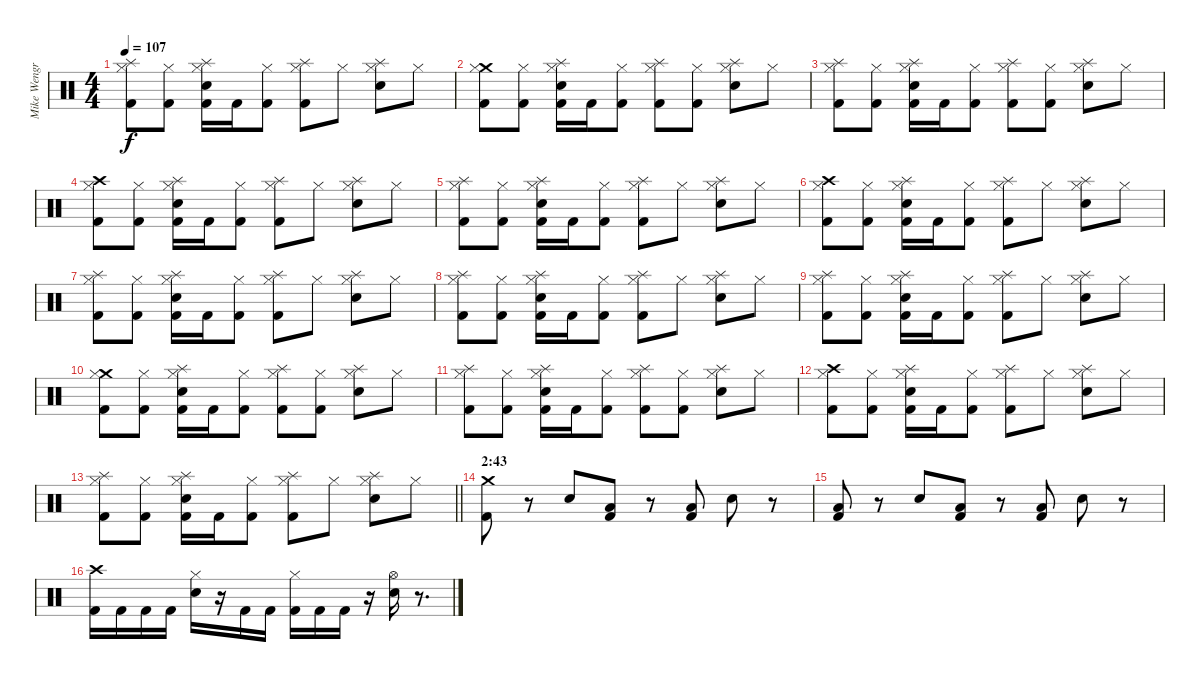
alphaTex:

\track ("Mike Wengren" "Mike Wengr") {instrument percussion}
\staff {score}
\articulation defaults
\ts (4 4)
\tempo 107
\clef neutral
\ks c
("Splash (hit)" "Hi-Hat (closed)" "Kick (hit) 2").8{dy f} ("Hi-Hat (closed)" "Kick (hit) 2").8 ("Splash (hit)" "Hi-Hat (closed)" "Electric Snare (hit)" "Kick (hit) 2").16 "Kick (hit) 2".16 ("Hi-Hat (closed)" "Kick (hit) 2").8 ("Splash (hit)" "Hi-Hat (closed)" "Kick (hit) 2").8 "Hi-Hat (closed)".8 ("Splash (hit)" "Hi-Hat (closed)" "Electric Snare (hit)").8 "Hi-Hat (closed)".8 |
("Crash medium (hit)" "Hi-Hat (closed)" "Kick (hit) 2").8 ("Hi-Hat (closed)" "Kick (hit) 2").8 ("Splash (hit)" "Hi-Hat (closed)" "Electric Snare (hit)" "Kick (hit) 2").16 "Kick (hit) 2".16 ("Hi-Hat (closed)" "Kick (hit) 2").8 ("Splash (hit)" "Hi-Hat (closed)" "Kick (hit) 2").8 ("Hi-Hat (closed)" "Kick (hit) 2").8 ("Splash (hit)" "Hi-Hat (closed)" "Electric Snare (hit)").8 "Hi-Hat (closed)".8 |
("Splash (hit)" "Hi-Hat (closed)" "Kick (hit) 2").8 ("Hi-Hat (closed)" "Kick (hit) 2").8 ("Splash (hit)" "Hi-Hat (closed)" "Electric Snare (hit)" "Kick (hit) 2").16 "Kick (hit) 2".16 ("Hi-Hat (closed)" "Kick (hit) 2").8 ("Splash (hit)" "Hi-Hat (closed)" "Kick (hit) 2").8 ("Hi-Hat (closed)" "Kick (hit) 2").8 ("Splash (hit)" "Hi-Hat (closed)" "Electric Snare (hit)").8 "Hi-Hat (closed)".8 |
("Crash high (hit)" "Hi-Hat (closed)" "Kick (hit) 2").8 ("Hi-Hat (closed)" "Kick (hit) 2").8 ("Splash (hit)" "Hi-Hat (closed)" "Electric Snare (hit)" "Kick (hit) 2").16 "Kick (hit) 2".16 ("Hi-Hat (closed)" "Kick (hit) 2").8 ("Splash (hit)" "Hi-Hat (closed)" "Kick (hit) 2").8 "Hi-Hat (closed)".8 ("Splash (hit)" "Hi-Hat (closed)" "Electric Snare (hit)").8 "Hi-Hat (closed)".8 |
("Splash (hit)" "Hi-Hat (closed)" "Kick (hit) 2").8 ("Hi-Hat (closed)" "Kick (hit) 2").8 ("Splash (hit)" "Hi-Hat (closed)" "Electric Snare (hit)" "Kick (hit) 2").16 "Kick (hit) 2".16 ("Hi-Hat (closed)" "Kick (hit) 2").8 ("Splash (hit)" "Hi-Hat (closed)" "Kick (hit) 2").8 "Hi-Hat (closed)".8 ("Splash (hit)" "Hi-Hat (closed)" "Electric Snare (hit)").8 "Hi-Hat (closed)".8 |
("Crash high (hit)" "Hi-Hat (closed)" "Kick (hit) 2").8 ("Hi-Hat (closed)" "Kick (hit) 2").8 ("Splash (hit)" "Hi-Hat (closed)" "Electric Snare (hit)" "Kick (hit) 2").16 "Kick (hit) 2".16 ("Hi-Hat (closed)" "Kick (hit) 2").8 ("Splash (hit)" "Hi-Hat (closed)" "Kick (hit) 2").8 "Hi-Hat (closed)".8 ("Splash (hit)" "Hi-Hat (closed)" "Electric Snare (hit)").8 "Hi-Hat (closed)".8 |
("Splash (hit)" "Hi-Hat (closed)" "Kick (hit) 2").8 ("Hi-Hat (closed)" "Kick (hit) 2").8 ("Splash (hit)" "Hi-Hat (closed)" "Electric Snare (hit)" "Kick (hit) 2").16 "Kick (hit) 2".16 ("Hi-Hat (closed)" "Kick (hit) 2").8 ("Splash (hit)" "Hi-Hat (closed)" "Kick (hit) 2").8 "Hi-Hat (closed)".8 ("Splash (hit)" "Hi-Hat (closed)" "Electric Snare (hit)").8 "Hi-Hat (closed)".8 |
("Splash (hit)" "Hi-Hat (closed)" "Kick (hit) 2").8 ("Hi-Hat (closed)" "Kick (hit) 2").8 ("Splash (hit)" "Hi-Hat (closed)" "Electric Snare (hit)" "Kick (hit) 2").16 "Kick (hit) 2".16 ("Hi-Hat (closed)" "Kick (hit) 2").8 ("Splash (hit)" "Hi-Hat (closed)" "Kick (hit) 2").8 "Hi-Hat (closed)".8 ("Splash (hit)" "Hi-Hat (closed)" "Electric Snare (hit)").8 "Hi-Hat (closed)".8 |
("Splash (hit)" "Hi-Hat (closed)" "Kick (hit) 2").8 ("Hi-Hat (closed)" "Kick (hit) 2").8 ("Splash (hit)" "Hi-Hat (closed)" "Electric Snare (hit)" "Kick (hit) 2").16 "Kick (hit) 2".16 ("Hi-Hat (closed)" "Kick (hit) 2").8 ("Splash (hit)" "Hi-Hat (closed)" "Kick (hit) 2").8 "Hi-Hat (closed)".8 ("Splash (hit)" "Hi-Hat (closed)" "Electric Snare (hit)").8 "Hi-Hat (closed)".8 |
("Crash medium (hit)" "Hi-Hat (closed)" "Kick (hit) 2").8 ("Hi-Hat (closed)" "Kick (hit) 2").8 ("Splash (hit)" "Hi-Hat (closed)" "Electric Snare (hit)" "Kick (hit) 2").16 "Kick (hit) 2".16 ("Hi-Hat (closed)" "Kick (hit) 2").8 ("Splash (hit)" "Hi-Hat (closed)" "Kick (hit) 2").8 ("Hi-Hat (closed)" "Kick (hit) 2").8 ("Splash (hit)" "Hi-Hat (closed)" "Electric Snare (hit)").8 "Hi-Hat (closed)".8 |
("Splash (hit)" "Hi-Hat (closed)" "Kick (hit) 2").8 ("Hi-Hat (closed)" "Kick (hit) 2").8 ("Splash (hit)" "Hi-Hat (closed)" "Electric Snare (hit)" "Kick (hit) 2").16 "Kick (hit) 2".16 ("Hi-Hat (closed)" "Kick (hit) 2").8 ("Splash (hit)" "Hi-Hat (closed)" "Kick (hit) 2").8 ("Hi-Hat (closed)" "Kick (hit) 2").8 ("Splash (hit)" "Hi-Hat (closed)" "Electric Snare (hit)").8 "Hi-Hat (closed)".8 |
("Crash high (hit)" "Hi-Hat (closed)" "Kick (hit) 2").8 ("Hi-Hat (closed)" "Kick (hit) 2").8 ("Splash (hit)" "Hi-Hat (closed)" "Electric Snare (hit)" "Kick (hit) 2").16 "Kick (hit) 2".16 ("Hi-Hat (closed)" "Kick (hit) 2").8 ("Splash (hit)" "Hi-Hat (closed)" "Kick (hit) 2").8 "Hi-Hat (closed)".8 ("Splash (hit)" "Hi-Hat (closed)" "Electric Snare (hit)").8 "Hi-Hat (closed)".8 |
\barLineRight lightlight
("Splash (hit)" "Hi-Hat (closed)" "Kick (hit) 2").8 ("Hi-Hat (closed)" "Kick (hit) 2").8 ("Splash (hit)" "Hi-Hat (closed)" "Electric Snare (hit)" "Kick (hit) 2").16 "Kick (hit) 2".16 ("Hi-Hat (closed)" "Kick (hit) 2").8 ("Splash (hit)" "Hi-Hat (closed)" "Kick (hit) 2").8 "Hi-Hat (closed)".8 ("Splash (hit)" "Hi-Hat (closed)" "Electric Snare (hit)").8 "Hi-Hat (closed)".8 |
\section ("" "2:43")
("Crash medium (hit)" "Kick (hit) 2").8 r.8 "Electric Snare (hit)".8 ("Low Floor Tom (hit)" "Kick (hit) 2").8 r.8 ("Low Floor Tom (hit)" "Kick (hit) 2").8 "Electric Snare (hit)".8 r.8 |
("Low Floor Tom (hit)" "Kick (hit) 2").8 r.8 "Electric Snare (hit)".8 ("Low Floor Tom (hit)" "Kick (hit) 2").8 r.8 ("Low Floor Tom (hit)" "Kick (hit) 2").8 "Electric Snare (hit)".8 r.8 |
("Crash high (hit)" "Kick (hit) 2").16 "Kick (hit) 2".16 "Kick (hit) 2".16 "Kick (hit) 2".16 ("Hi-Hat (closed)" "Electric Snare (hit)").16 r.16 "Kick (hit) 2".16 "Kick (hit) 2".16 ("Hi-Hat (closed)" "Kick (hit) 2").16 "Kick (hit) 2".16 "Kick (hit) 2".16 r.16 ("Hi-Hat (open)" "Electric Snare (hit)").16 r.8{d}
